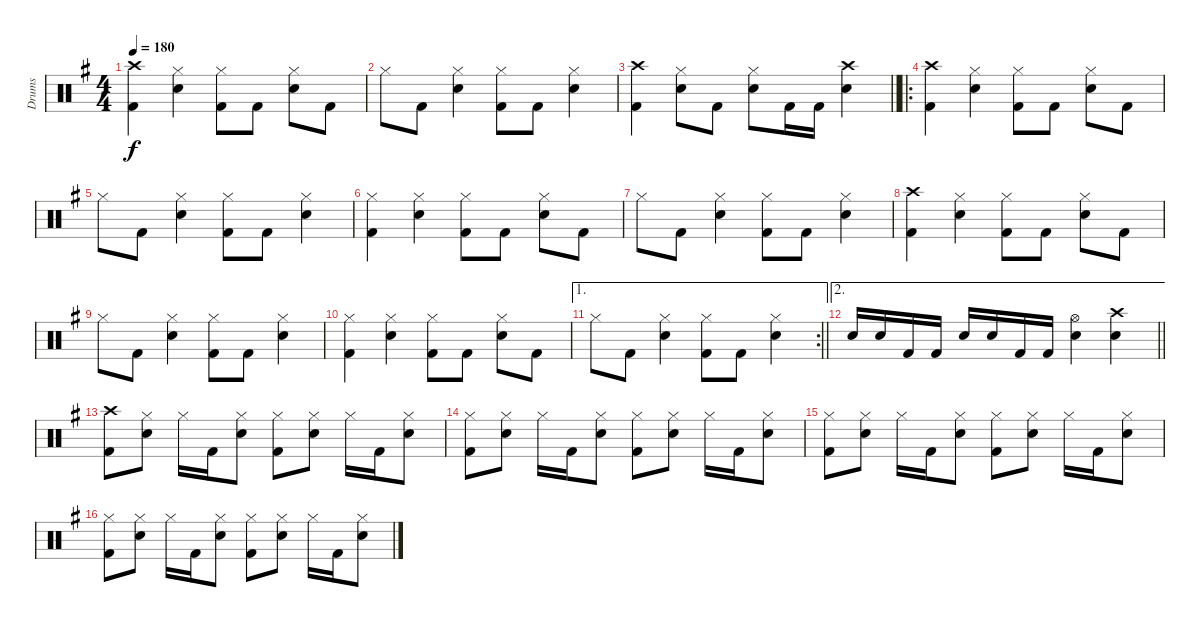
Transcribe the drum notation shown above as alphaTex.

\track ("Drums" "Drums") {instrument percussion}
\staff {score}
\articulation defaults
\ts (4 4)
\tempo 180
\clef neutral
\ks g
("Crash high (hit)" "Kick (hit) 2").4{dy f} ("Hi-Hat (closed)" "Snare (hit) 2").4 ("Hi-Hat (closed)" "Kick (hit) 2").8 "Kick (hit) 2".8 ("Hi-Hat (closed)" "Snare (hit) 2").8 "Kick (hit) 2".8 |
"Hi-Hat (closed)".8 "Kick (hit) 2".8 ("Hi-Hat (closed)" "Snare (hit) 2").4 ("Hi-Hat (closed)" "Kick (hit) 2").8 "Kick (hit) 2".8 ("Hi-Hat (closed)" "Snare (hit) 2").4 |
\barLineRight lightlight
("Crash high (hit)" "Kick (hit) 2").4 ("Hi-Hat (closed)" "Snare (hit) 2").8 "Kick (hit) 2".8 ("Hi-Hat (closed)" "Snare (hit) 2").8 "Kick (hit) 2".16 "Kick (hit) 2".16 ("Crash high (hit)" "Snare (hit) 2").4 |
\ro
("Crash high (hit)" "Kick (hit) 2").4 ("Hi-Hat (closed)" "Snare (hit) 2").4 ("Hi-Hat (closed)" "Kick (hit) 2").8 "Kick (hit) 2".8 ("Hi-Hat (closed)" "Snare (hit) 2").8 "Kick (hit) 2".8 |
"Hi-Hat (closed)".8 "Kick (hit) 2".8 ("Hi-Hat (closed)" "Snare (hit) 2").4 ("Hi-Hat (closed)" "Kick (hit) 2").8 "Kick (hit) 2".8 ("Hi-Hat (closed)" "Snare (hit) 2").4 |
("Hi-Hat (closed)" "Kick (hit) 2").4 ("Hi-Hat (closed)" "Snare (hit) 2").4 ("Hi-Hat (closed)" "Kick (hit) 2").8 "Kick (hit) 2".8 ("Hi-Hat (closed)" "Snare (hit) 2").8 "Kick (hit) 2".8 |
"Hi-Hat (closed)".8 "Kick (hit) 2".8 ("Hi-Hat (closed)" "Snare (hit) 2").4 ("Hi-Hat (closed)" "Kick (hit) 2").8 "Kick (hit) 2".8 ("Hi-Hat (closed)" "Snare (hit) 2").4 |
("Crash high (hit)" "Kick (hit) 2").4 ("Hi-Hat (closed)" "Snare (hit) 2").4 ("Hi-Hat (closed)" "Kick (hit) 2").8 "Kick (hit) 2".8 ("Hi-Hat (closed)" "Snare (hit) 2").8 "Kick (hit) 2".8 |
"Hi-Hat (closed)".8 "Kick (hit) 2".8 ("Hi-Hat (closed)" "Snare (hit) 2").4 ("Hi-Hat (closed)" "Kick (hit) 2").8 "Kick (hit) 2".8 ("Hi-Hat (closed)" "Snare (hit) 2").4 |
("Hi-Hat (closed)" "Kick (hit) 2").4 ("Hi-Hat (closed)" "Snare (hit) 2").4 ("Hi-Hat (closed)" "Kick (hit) 2").8 "Kick (hit) 2".8 ("Hi-Hat (closed)" "Snare (hit) 2").8 "Kick (hit) 2".8 |
\ae 1
\rc 2
\barLineRight lightlight "Hi-Hat (closed)".8 "Kick (hit) 2".8
("Hi-Hat (closed)" "Snare (hit) 2").4 ("Hi-Hat (closed)" "Kick (hit) 2").8 "Kick (hit) 2".8 ("Hi-Hat (closed)" "Snare (hit) 2").4 |
\ae 2
\barLineRight lightlight "Snare (hit) 2".16 "Snare (hit) 2".16 "Kick (hit) 2".16 "Kick (hit) 2".16 "Snare (hit) 2".16 "Snare (hit) 2".16 "Kick (hit) 2".16 "Kick (hit) 2".16
("Hi-Hat (open)" "Snare (hit) 2").4 ("Crash high (hit)" "Snare (hit) 2").4 |
("Crash high (hit)" "Kick (hit) 2").8 ("Hi-Hat (closed)" "Snare (hit) 2").8 "Hi-Hat (closed)".16 "Kick (hit) 2".16 ("Hi-Hat (closed)" "Snare (hit) 2").8 ("Hi-Hat (closed)" "Kick (hit) 2").8 ("Hi-Hat (closed)" "Snare (hit) 2").8 "Hi-Hat (closed)".16 "Kick (hit) 2".16 ("Hi-Hat (closed)" "Snare (hit) 2").8 |
("Hi-Hat (closed)" "Kick (hit) 2").8 ("Hi-Hat (closed)" "Snare (hit) 2").8 "Hi-Hat (closed)".16 "Kick (hit) 2".16 ("Hi-Hat (closed)" "Snare (hit) 2").8 ("Hi-Hat (closed)" "Kick (hit) 2").8 ("Hi-Hat (closed)" "Snare (hit) 2").8 "Hi-Hat (closed)".16 "Kick (hit) 2".16 ("Hi-Hat (closed)" "Snare (hit) 2").8 |
("Hi-Hat (closed)" "Kick (hit) 2").8 ("Hi-Hat (closed)" "Snare (hit) 2").8 "Hi-Hat (closed)".16 "Kick (hit) 2".16 ("Hi-Hat (closed)" "Snare (hit) 2").8 ("Hi-Hat (closed)" "Kick (hit) 2").8 ("Hi-Hat (closed)" "Snare (hit) 2").8 "Hi-Hat (closed)".16 "Kick (hit) 2".16 ("Hi-Hat (closed)" "Snare (hit) 2").8 |
("Hi-Hat (closed)" "Kick (hit) 2").8 ("Hi-Hat (closed)" "Snare (hit) 2").8 "Hi-Hat (closed)".16 "Kick (hit) 2".16 ("Hi-Hat (closed)" "Snare (hit) 2").8 ("Hi-Hat (closed)" "Kick (hit) 2").8 ("Hi-Hat (closed)" "Snare (hit) 2").8 "Hi-Hat (closed)".16 "Kick (hit) 2".16 ("Hi-Hat (closed)" "Snare (hit) 2").8
